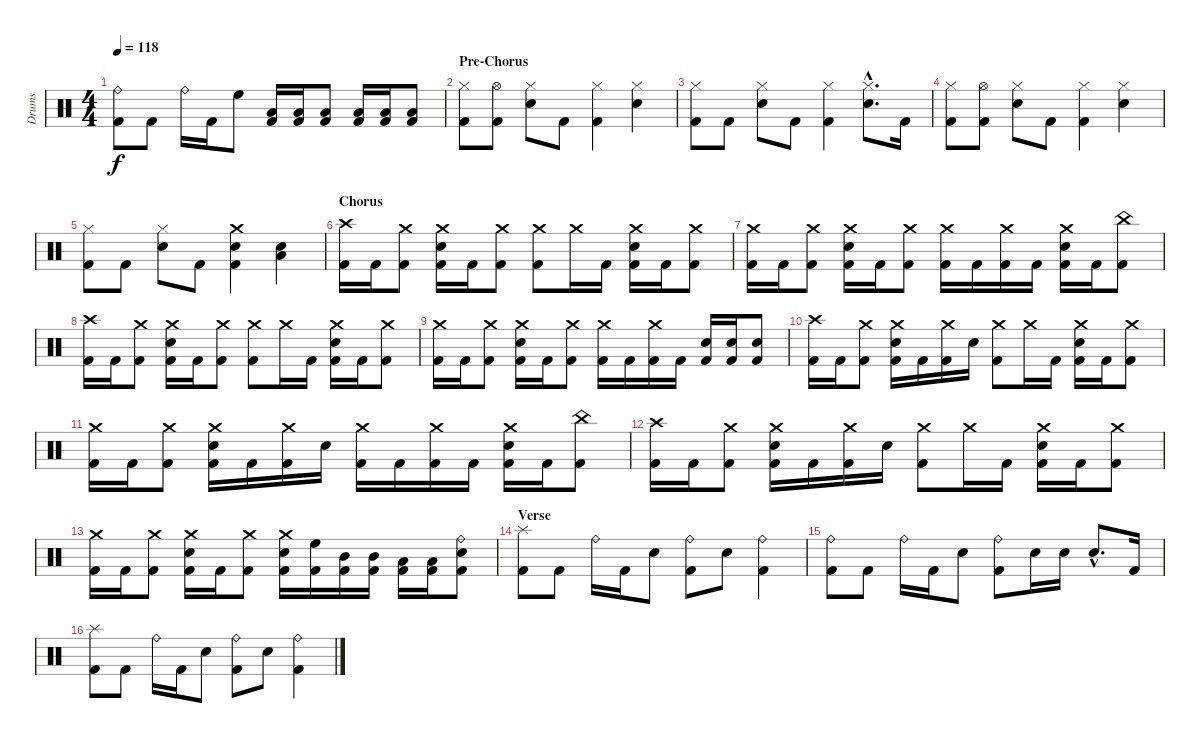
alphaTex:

\track ("Drums" "Drums") {instrument percussion}
\staff {score}
\articulation defaults
\ts (4 4)
\tempo 118
\clef neutral
\ks c
("Ride (bell)" "Kick (hit) 2").8{dy f} "Kick (hit) 2".8 "Ride (bell)".16 "Kick (hit) 2".16 "High Floor Tom (hit)".8 ("Low Tom (hit)" "Kick (hit) 2").16 ("Low Tom (hit)" "Kick (hit) 2").16 ("Low Tom (hit)" "Kick (hit) 2").8 ("Low Tom (hit)" "Kick (hit) 2").16 ("Low Tom (hit)" "Kick (hit) 2").16 ("Low Tom (hit)" "Kick (hit) 2").8 |
\section ("" "Pre-Chorus")
("Hi-Hat (closed)" "Kick (hit) 2").8 ("Hi-Hat (open)" "Kick (hit) 2").8 ("Hi-Hat (closed)" "Snare (hit) 2").8 "Kick (hit) 2".8 ("Hi-Hat (closed)" "Kick (hit) 2").4 ("Hi-Hat (closed)" "Snare (hit) 2").4 |
("Hi-Hat (closed)" "Kick (hit) 2").8 "Kick (hit) 2".8 ("Hi-Hat (closed)" "Snare (hit) 2").8 "Kick (hit) 2".8 ("Hi-Hat (closed)" "Kick (hit) 2").4 ("Hi-Hat (closed)"{hac} "Snare (hit) 2"{hac}).8{d} "Kick (hit) 2".16 |
("Hi-Hat (closed)" "Kick (hit) 2").8 ("Hi-Hat (open)" "Kick (hit) 2").8 ("Hi-Hat (closed)" "Snare (hit) 2").8 "Kick (hit) 2".8 ("Hi-Hat (closed)" "Kick (hit) 2").4 ("Hi-Hat (closed)" "Snare (hit) 2").4 |
("Hi-Hat (closed)" "Kick (hit) 2").8 "Kick (hit) 2".8 ("Hi-Hat (closed)" "Snare (hit) 2").8 "Kick (hit) 2".8 ("Crash medium (hit)" "Snare (hit) 2" "Kick (hit) 2").4 ("Snare (hit) 2" "Low Floor Tom (hit)").4 |
\section ("" "Chorus")
("Crash high (hit)" "Kick (hit) 2").16 "Kick (hit) 2".16 ("Crash medium (hit)" "Kick (hit) 2").8 ("Crash medium (hit)" "Snare (hit) 2" "Kick (hit) 2").16 "Kick (hit) 2".16 ("Crash medium (hit)" "Kick (hit) 2").8 ("Crash medium (hit)" "Kick (hit) 2").8 "Crash medium (hit)".16 "Kick (hit) 2".16 ("Crash medium (hit)" "Snare (hit) 2" "Kick (hit) 2").16 "Kick (hit) 2".16 ("Crash medium (hit)" "Kick (hit) 2").8 |
("Crash medium (hit)" "Kick (hit) 2").16 "Kick (hit) 2".16 ("Crash medium (hit)" "Kick (hit) 2").8 ("Crash medium (hit)" "Snare (hit) 2" "Kick (hit) 2").16 "Kick (hit) 2".16 ("Crash medium (hit)" "Kick (hit) 2").8 ("Crash medium (hit)" "Kick (hit) 2").16 "Kick (hit) 2".16 ("Crash medium (hit)" "Kick (hit) 2").16 "Kick (hit) 2".16 ("Crash medium (hit)" "Snare (hit) 2" "Kick (hit) 2").16 "Kick (hit) 2".16 ("China (hit)" "Kick (hit) 2").8 |
("Crash high (hit)" "Kick (hit) 2").16 "Kick (hit) 2".16 ("Crash medium (hit)" "Kick (hit) 2").8 ("Crash medium (hit)" "Snare (hit) 2" "Kick (hit) 2").16 "Kick (hit) 2".16 ("Crash medium (hit)" "Kick (hit) 2").8 ("Crash medium (hit)" "Kick (hit) 2").8 "Crash medium (hit)".16 "Kick (hit) 2".16 ("Crash medium (hit)" "Snare (hit) 2" "Kick (hit) 2").16 "Kick (hit) 2".16 ("Crash medium (hit)" "Kick (hit) 2").8 |
("Crash medium (hit)" "Kick (hit) 2").16 "Kick (hit) 2".16 ("Crash medium (hit)" "Kick (hit) 2").8 ("Crash medium (hit)" "Snare (hit) 2" "Kick (hit) 2").16 "Kick (hit) 2".16 ("Crash medium (hit)" "Kick (hit) 2").8 ("Crash medium (hit)" "Kick (hit) 2").16 "Kick (hit) 2".16 ("Crash medium (hit)" "Kick (hit) 2").16 "Kick (hit) 2".16 ("Snare (hit) 2" "Kick (hit) 2").16 ("Snare (hit) 2" "Kick (hit) 2").16 ("Snare (hit) 2" "Kick (hit) 2").8 |
("Crash high (hit)" "Kick (hit) 2").16 "Kick (hit) 2".16 ("Crash medium (hit)" "Kick (hit) 2").8 ("Crash medium (hit)" "Snare (hit) 2" "Kick (hit) 2").16 "Kick (hit) 2".16 ("Crash medium (hit)" "Kick (hit) 2").16 "Snare (hit) 2".16 ("Crash medium (hit)" "Kick (hit) 2").8 "Crash medium (hit)".16 "Kick (hit) 2".16 ("Crash medium (hit)" "Snare (hit) 2" "Kick (hit) 2").16 "Kick (hit) 2".16 ("Crash medium (hit)" "Kick (hit) 2").8 |
("Crash medium (hit)" "Kick (hit) 2").16 "Kick (hit) 2".16 ("Crash medium (hit)" "Kick (hit) 2").8 ("Crash medium (hit)" "Snare (hit) 2" "Kick (hit) 2").16 "Kick (hit) 2".16 ("Crash medium (hit)" "Kick (hit) 2").16 "Snare (hit) 2".16 ("Crash medium (hit)" "Kick (hit) 2").16 "Kick (hit) 2".16 ("Crash medium (hit)" "Kick (hit) 2").16 "Kick (hit) 2".16 ("Crash medium (hit)" "Snare (hit) 2" "Kick (hit) 2").16 "Kick (hit) 2".16 ("China (hit)" "Kick (hit) 2").8 |
("Crash high (hit)" "Kick (hit) 2").16 "Kick (hit) 2".16 ("Crash medium (hit)" "Kick (hit) 2").8 ("Crash medium (hit)" "Snare (hit) 2" "Kick (hit) 2").16 "Kick (hit) 2".16 ("Crash medium (hit)" "Kick (hit) 2").16 "Snare (hit) 2".16 ("Crash medium (hit)" "Kick (hit) 2").8 "Crash medium (hit)".16 "Kick (hit) 2".16 ("Crash medium (hit)" "Snare (hit) 2" "Kick (hit) 2").16 "Kick (hit) 2".16 ("Crash medium (hit)" "Kick (hit) 2").8 |
("Crash medium (hit)" "Kick (hit) 2").16 "Kick (hit) 2".16 ("Crash medium (hit)" "Kick (hit) 2").8 ("Crash medium (hit)" "Snare (hit) 2" "Kick (hit) 2").16 "Kick (hit) 2".16 ("Crash medium (hit)" "Kick (hit) 2").8 ("Crash medium (hit)" "Snare (hit) 2" "Kick (hit) 2").16 ("High Floor Tom (hit)" "Kick (hit) 2").16 ("Mid Tom (hit)" "Kick (hit) 2").16 ("Mid Tom (hit)" "Kick (hit) 2").16 ("Low Tom (hit)" "Kick (hit) 2").16 ("Low Tom (hit)" "Kick (hit) 2").16 ("Ride (bell)" "Snare (hit) 2" "Kick (hit) 2").8 |
\section ("" "Verse")
("Splash (hit)" "Kick (hit) 2").8 "Kick (hit) 2".8 "Ride (bell)".16 "Kick (hit) 2".16 "Snare (hit) 2".8 ("Ride (bell)" "Kick (hit) 2").8 "Snare (hit) 2".8 ("Ride (bell)" "Kick (hit) 2").4 |
("Ride (bell)" "Kick (hit) 2").8 "Kick (hit) 2".8 "Ride (bell)".16 "Kick (hit) 2".16 "Snare (hit) 2".8 ("Ride (bell)" "Kick (hit) 2").8 "Snare (hit) 2".16 "Snare (hit) 2".16 "Snare (hit) 2"{hac}.8{d} "Kick (hit) 2".16 |
("Splash (hit)" "Kick (hit) 2").8 "Kick (hit) 2".8 "Ride (bell)".16 "Kick (hit) 2".16 "Snare (hit) 2".8 ("Ride (bell)" "Kick (hit) 2").8 "Snare (hit) 2".8 ("Ride (bell)" "Kick (hit) 2").4
